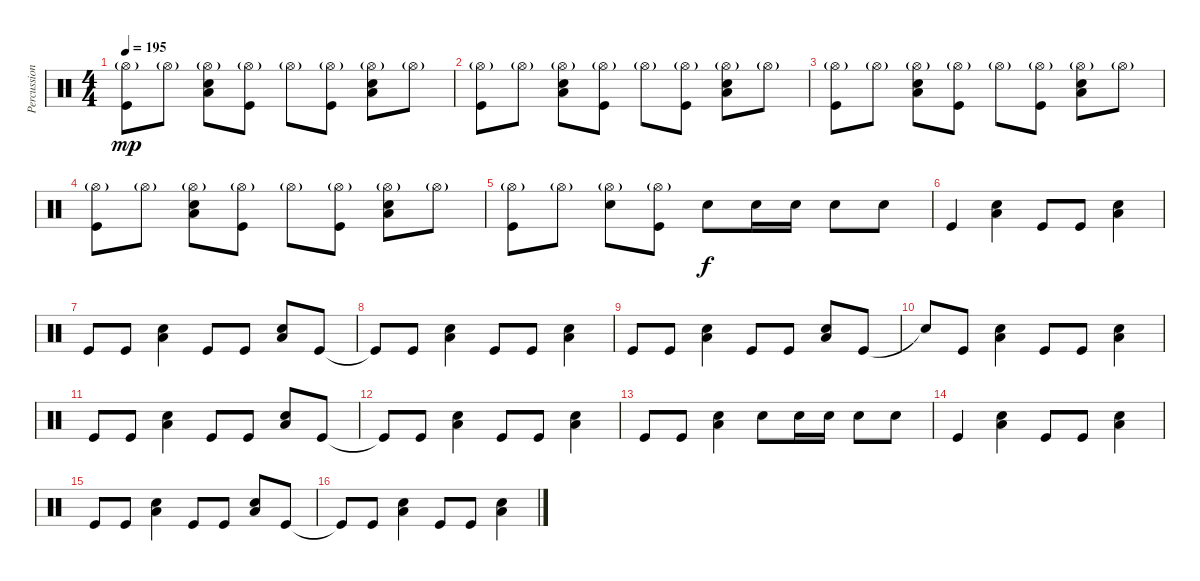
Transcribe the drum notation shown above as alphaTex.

\track ("Percussion" "Percussion") {instrument percussion}
\staff {score}
\articulation defaults
\ts (4 4)
\tempo 195
\clef neutral
\ks c
("Hi-Hat (open)"{g} "Kick (hit)").8{dy mp} "Hi-Hat (open)"{g}.8 ("Hi-Hat (open)"{g} "Low Tom (hit)" "Snare (hit) 2").8 ("Hi-Hat (open)"{g} "Kick (hit)").8 "Hi-Hat (open)"{g}.8 ("Hi-Hat (open)"{g} "Kick (hit)").8 ("Hi-Hat (open)"{g} "Low Tom (hit)" "Snare (hit) 2").8 "Hi-Hat (open)"{g}.8 |
("Hi-Hat (open)"{g} "Kick (hit)").8 "Hi-Hat (open)"{g}.8 ("Hi-Hat (open)"{g} "Low Tom (hit)" "Snare (hit) 2").8 ("Hi-Hat (open)"{g} "Kick (hit)").8 "Hi-Hat (open)"{g}.8 ("Hi-Hat (open)"{g} "Kick (hit)").8 ("Hi-Hat (open)"{g} "Low Tom (hit)" "Snare (hit) 2").8 "Hi-Hat (open)"{g}.8 |
("Hi-Hat (open)"{g} "Kick (hit)").8 "Hi-Hat (open)"{g}.8 ("Hi-Hat (open)"{g} "Low Tom (hit)" "Snare (hit) 2").8 ("Hi-Hat (open)"{g} "Kick (hit)").8 "Hi-Hat (open)"{g}.8 ("Hi-Hat (open)"{g} "Kick (hit)").8 ("Hi-Hat (open)"{g} "Low Tom (hit)" "Snare (hit) 2").8 "Hi-Hat (open)"{g}.8 |
("Hi-Hat (open)"{g} "Kick (hit)").8 "Hi-Hat (open)"{g}.8 ("Hi-Hat (open)"{g} "Low Tom (hit)" "Snare (hit) 2").8 ("Hi-Hat (open)"{g} "Kick (hit)").8 "Hi-Hat (open)"{g}.8 ("Hi-Hat (open)"{g} "Kick (hit)").8 ("Hi-Hat (open)"{g} "Low Tom (hit)" "Snare (hit) 2").8 "Hi-Hat (open)"{g}.8 |
("Hi-Hat (open)"{g} "Kick (hit)").8 "Hi-Hat (open)"{g}.8 ("Hi-Hat (open)"{g} "Snare (hit) 2").8 ("Hi-Hat (open)"{g} "Kick (hit)").8 "Snare (hit) 2".8{dy f} "Snare (hit) 2".16 "Snare (hit) 2".16 "Snare (hit) 2".8 "Snare (hit) 2".8 |
"Kick (hit)".4 ("Low Tom (hit)" "Snare (hit) 2").4 "Kick (hit)".8 "Kick (hit)".8 ("Low Tom (hit)" "Snare (hit) 2").4 |
"Kick (hit)".8 "Kick (hit)".8 ("Low Tom (hit)" "Snare (hit) 2").4 "Kick (hit)".8 "Kick (hit)".8 ("Low Tom (hit)" "Snare (hit) 2").8 "Kick (hit)".8 |
"Kick (hit)"{t}.8 "Kick (hit)".8 ("Low Tom (hit)" "Snare (hit) 2").4 "Kick (hit)".8 "Kick (hit)".8 ("Low Tom (hit)" "Snare (hit) 2").4 |
"Kick (hit)".8 "Kick (hit)".8 ("Low Tom (hit)" "Snare (hit) 2").4 "Kick (hit)".8 "Kick (hit)".8 ("Low Tom (hit)" "Snare (hit) 2").8 "Kick (hit)".8 |
"Snare (hit)"{t}.8 "Kick (hit)".8 ("Low Tom (hit)" "Snare (hit) 2").4 "Kick (hit)".8 "Kick (hit)".8 ("Low Tom (hit)" "Snare (hit) 2").4 |
"Kick (hit)".8 "Kick (hit)".8 ("Low Tom (hit)" "Snare (hit) 2").4 "Kick (hit)".8 "Kick (hit)".8 ("Low Tom (hit)" "Snare (hit) 2").8 "Kick (hit)".8 |
"Kick (hit)"{t}.8 "Kick (hit)".8 ("Low Tom (hit)" "Snare (hit) 2").4 "Kick (hit)".8 "Kick (hit)".8 ("Low Tom (hit)" "Snare (hit) 2").4 |
"Kick (hit)".8 "Kick (hit)".8 ("Low Tom (hit)" "Snare (hit) 2").4 "Snare (hit) 2".8 "Snare (hit) 2".16 "Snare (hit) 2".16 "Snare (hit) 2".8 "Snare (hit) 2".8 |
"Kick (hit)".4 ("Low Tom (hit)" "Snare (hit) 2").4 "Kick (hit)".8 "Kick (hit)".8 ("Low Tom (hit)" "Snare (hit) 2").4 |
"Kick (hit)".8 "Kick (hit)".8 ("Low Tom (hit)" "Snare (hit) 2").4 "Kick (hit)".8 "Kick (hit)".8 ("Low Tom (hit)" "Snare (hit) 2").8 "Kick (hit)".8 |
"Kick (hit)"{t}.8 "Kick (hit)".8 ("Low Tom (hit)" "Snare (hit) 2").4 "Kick (hit)".8 "Kick (hit)".8 ("Low Tom (hit)" "Snare (hit) 2").4
